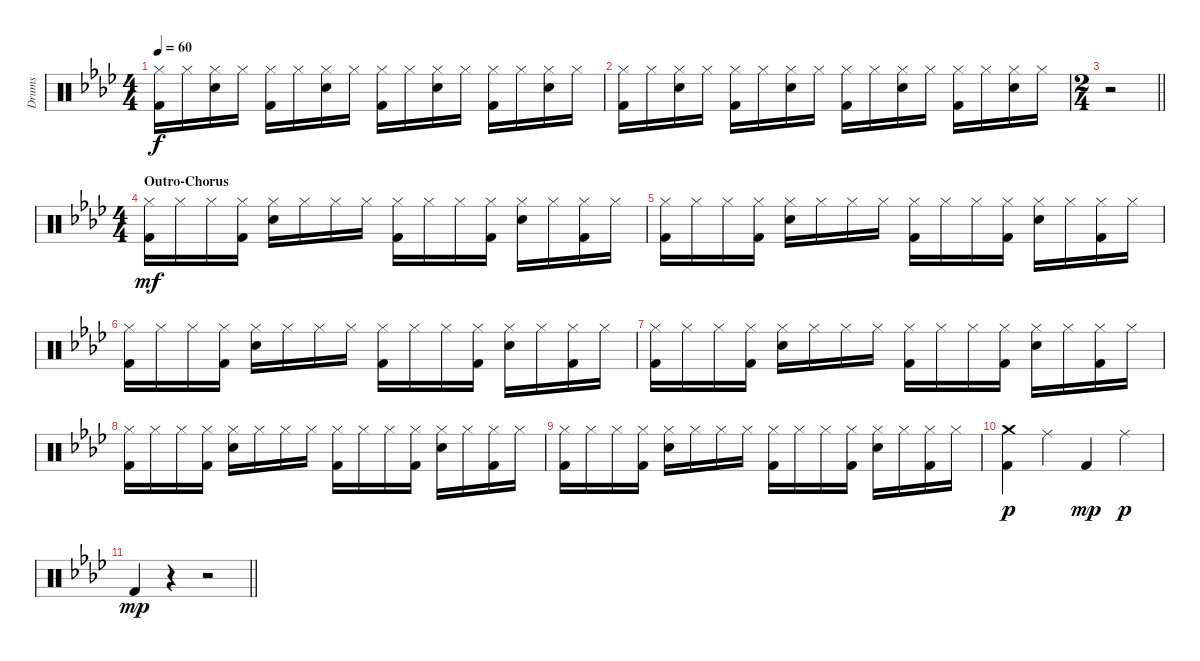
\track ("Drums" "Drums") {instrument percussion}
\staff {score}
\articulation defaults
\ts (4 4)
\tempo 60
\clef neutral
\ks fminor
("Hi-Hat (closed)" "Kick (hit) 2").16{dy f} "Hi-Hat (closed)".16 ("Hi-Hat (closed)" "Snare (hit) 2").16 "Hi-Hat (closed)".16 ("Hi-Hat (closed)" "Kick (hit) 2").16 "Hi-Hat (closed)".16 ("Hi-Hat (closed)" "Snare (hit) 2").16 "Hi-Hat (closed)".16 ("Hi-Hat (closed)" "Kick (hit) 2").16 "Hi-Hat (closed)".16 ("Hi-Hat (closed)" "Snare (hit) 2").16 "Hi-Hat (closed)".16 ("Hi-Hat (closed)" "Kick (hit) 2").16 "Hi-Hat (closed)".16 ("Hi-Hat (closed)" "Snare (hit) 2").16 "Hi-Hat (closed)".16 |
("Hi-Hat (closed)" "Kick (hit) 2").16 "Hi-Hat (closed)".16 ("Hi-Hat (closed)" "Snare (hit) 2").16 "Hi-Hat (closed)".16 ("Hi-Hat (closed)" "Kick (hit) 2").16 "Hi-Hat (closed)".16 ("Hi-Hat (closed)" "Snare (hit) 2").16 "Hi-Hat (closed)".16 ("Hi-Hat (closed)" "Kick (hit) 2").16 "Hi-Hat (closed)".16 ("Hi-Hat (closed)" "Snare (hit) 2").16 "Hi-Hat (closed)".16 ("Hi-Hat (closed)" "Kick (hit) 2").16 "Hi-Hat (closed)".16 ("Hi-Hat (closed)" "Snare (hit) 2").16 "Hi-Hat (closed)".16 |
\ts (2 4)
\barLineRight lightlight
r.2 |
\ts (4 4)
\section ("" "Outro-Chorus")
("Hi-Hat (closed)" "Kick (hit) 2").16{dy mf} "Hi-Hat (closed)".16 "Hi-Hat (closed)".16 ("Hi-Hat (closed)" "Kick (hit) 2").16 ("Hi-Hat (closed)" "Snare (hit) 2").16 "Hi-Hat (closed)".16 "Hi-Hat (closed)".16 "Hi-Hat (closed)".16 ("Hi-Hat (closed)" "Kick (hit) 2").16 "Hi-Hat (closed)".16 "Hi-Hat (closed)".16 ("Hi-Hat (closed)" "Kick (hit) 2").16 ("Hi-Hat (closed)" "Snare (hit) 2").16 "Hi-Hat (closed)".16 ("Hi-Hat (closed)" "Kick (hit) 2").16 "Hi-Hat (closed)".16 |
("Hi-Hat (closed)" "Kick (hit) 2").16 "Hi-Hat (closed)".16 "Hi-Hat (closed)".16 ("Hi-Hat (closed)" "Kick (hit) 2").16 ("Hi-Hat (closed)" "Snare (hit) 2").16 "Hi-Hat (closed)".16 "Hi-Hat (closed)".16 "Hi-Hat (closed)".16 ("Hi-Hat (closed)" "Kick (hit) 2").16 "Hi-Hat (closed)".16 "Hi-Hat (closed)".16 ("Hi-Hat (closed)" "Kick (hit) 2").16 ("Hi-Hat (closed)" "Snare (hit) 2").16 "Hi-Hat (closed)".16 ("Hi-Hat (closed)" "Kick (hit) 2").16 "Hi-Hat (closed)".16 |
("Hi-Hat (closed)" "Kick (hit) 2").16 "Hi-Hat (closed)".16 "Hi-Hat (closed)".16 ("Hi-Hat (closed)" "Kick (hit) 2").16 ("Hi-Hat (closed)" "Snare (hit) 2").16 "Hi-Hat (closed)".16 "Hi-Hat (closed)".16 "Hi-Hat (closed)".16 ("Hi-Hat (closed)" "Kick (hit) 2").16 "Hi-Hat (closed)".16 "Hi-Hat (closed)".16 ("Hi-Hat (closed)" "Kick (hit) 2").16 ("Hi-Hat (closed)" "Snare (hit) 2").16 "Hi-Hat (closed)".16 ("Hi-Hat (closed)" "Kick (hit) 2").16 "Hi-Hat (closed)".16 |
("Hi-Hat (closed)" "Kick (hit) 2").16 "Hi-Hat (closed)".16 "Hi-Hat (closed)".16 ("Hi-Hat (closed)" "Kick (hit) 2").16 ("Hi-Hat (closed)" "Snare (hit) 2").16 "Hi-Hat (closed)".16 "Hi-Hat (closed)".16 "Hi-Hat (closed)".16 ("Hi-Hat (closed)" "Kick (hit) 2").16 "Hi-Hat (closed)".16 "Hi-Hat (closed)".16 ("Hi-Hat (closed)" "Kick (hit) 2").16 ("Hi-Hat (closed)" "Snare (hit) 2").16 "Hi-Hat (closed)".16 ("Hi-Hat (closed)" "Kick (hit) 2").16 "Hi-Hat (closed)".16 |
("Hi-Hat (closed)" "Kick (hit) 2").16 "Hi-Hat (closed)".16 "Hi-Hat (closed)".16 ("Hi-Hat (closed)" "Kick (hit) 2").16 ("Hi-Hat (closed)" "Snare (hit) 2").16 "Hi-Hat (closed)".16 "Hi-Hat (closed)".16 "Hi-Hat (closed)".16 ("Hi-Hat (closed)" "Kick (hit) 2").16 "Hi-Hat (closed)".16 "Hi-Hat (closed)".16 ("Hi-Hat (closed)" "Kick (hit) 2").16 ("Hi-Hat (closed)" "Snare (hit) 2").16 "Hi-Hat (closed)".16 ("Hi-Hat (closed)" "Kick (hit) 2").16 "Hi-Hat (closed)".16 |
("Hi-Hat (closed)" "Kick (hit) 2").16 "Hi-Hat (closed)".16 "Hi-Hat (closed)".16 ("Hi-Hat (closed)" "Kick (hit) 2").16 ("Hi-Hat (closed)" "Snare (hit) 2").16 "Hi-Hat (closed)".16 "Hi-Hat (closed)".16 "Hi-Hat (closed)".16 ("Hi-Hat (closed)" "Kick (hit) 2").16 "Hi-Hat (closed)".16 "Hi-Hat (closed)".16 ("Hi-Hat (closed)" "Kick (hit) 2").16 ("Hi-Hat (closed)" "Snare (hit) 2").16 "Hi-Hat (closed)".16 ("Hi-Hat (closed)" "Kick (hit) 2").16 "Hi-Hat (closed)".16 |
("Kick (hit) 2" "Crash medium (hit)").4{dy p} "Ride (middle)".4 "Kick (hit) 2".4{dy mp} "Ride (middle)".4{dy p} |
\barLineRight lightlight "Kick (hit) 2".4{dy mp}
r.4 r.2
